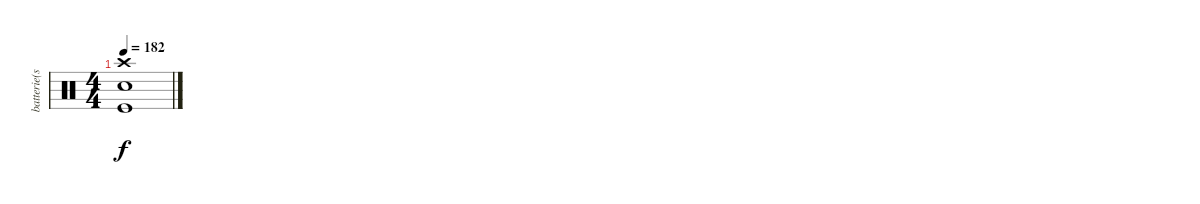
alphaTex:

\track ("batterie(scott)" "batterie(s") {instrument percussion}
\staff {score}
\articulation defaults
\ts (4 4)
\tempo 182
\clef neutral
\ks c
("Crash high (hit)" "Snare (hit) 2" "Kick (hit)").1{dy f}
